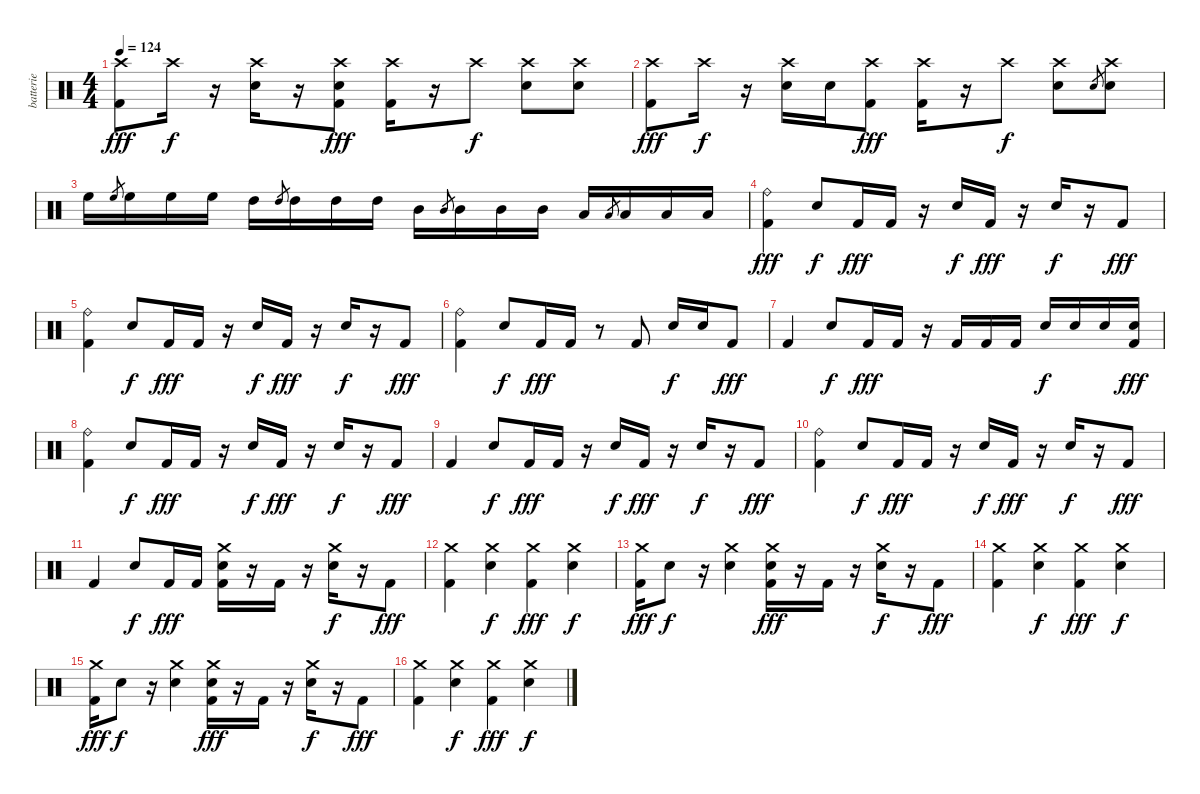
\track ("batterie" "batterie") {instrument percussion}
\staff {score}
\articulation defaults
\ts (4 4)
\tempo 124
\clef neutral
\ks c
("Crash high (hit)" "Kick (hit) 2").8{dy fff} "Crash high (hit)".16{dy f} r.16 ("Crash high (hit)" "Electric Snare (hit)").16 r.16 ("Crash high (hit)" "Electric Snare (hit)" "Kick (hit) 2").8{dy fff} ("Crash high (hit)" "Kick (hit) 2").16 r.16 "Crash high (hit)".8{dy f} ("Crash high (hit)" "Electric Snare (hit)").8 ("Crash high (hit)" "Electric Snare (hit)").8 |
("Crash high (hit)" "Kick (hit) 2").8{dy fff} "Crash high (hit)".16{dy f} r.16 ("Crash high (hit)" "Electric Snare (hit)").16 "Electric Snare (hit)".16 ("Crash high (hit)" "Kick (hit) 2").8{dy fff} ("Crash high (hit)" "Kick (hit) 2").16 r.16 "Crash high (hit)".8{dy f} ("Crash high (hit)" "Electric Snare (hit)").8 "Electric Snare (hit)".8{gr} ("Crash high (hit)" "Electric Snare (hit)").8 |
"High Floor Tom (hit)".16 "High Floor Tom (hit)".8{gr} "High Floor Tom (hit)".16 "High Floor Tom (hit)".16 "High Floor Tom (hit)".16 "High Tom (hit)".16 "High Tom (hit)".8{gr} "High Tom (hit)".16 "High Tom (hit)".16 "High Tom (hit)".16 "Mid Tom (hit)".16 "Mid Tom (hit)".8{gr} "Mid Tom (hit)".16 "Mid Tom (hit)".16 "Mid Tom (hit)".16 "Low Tom (hit)".16 "Low Tom (hit)".8{gr} "Low Tom (hit)".16 "Low Tom (hit)".16 "Low Tom (hit)".16 |
("Ride (bell)" "Kick (hit) 2").4{dy fff} "Electric Snare (hit)".8{dy f} "Kick (hit) 2".16{dy fff} "Kick (hit) 2".16 r.16 "Electric Snare (hit)".16{dy f} "Kick (hit) 2".16{dy fff} r.16 "Electric Snare (hit)".16{dy f} r.16 "Kick (hit) 2".8{dy fff} |
("Ride (bell)" "Kick (hit) 2").4 "Electric Snare (hit)".8{dy f} "Kick (hit) 2".16{dy fff} "Kick (hit) 2".16 r.16 "Electric Snare (hit)".16{dy f} "Kick (hit) 2".16{dy fff} r.16 "Electric Snare (hit)".16{dy f} r.16 "Kick (hit) 2".8{dy fff} |
("Ride (bell)" "Kick (hit) 2").4 "Electric Snare (hit)".8{dy f} "Kick (hit) 2".16{dy fff} "Kick (hit) 2".16 r.8 "Kick (hit) 2".8 "Electric Snare (hit)".16{dy f} "Electric Snare (hit)".16 "Kick (hit) 2".8{dy fff} |
"Kick (hit) 2".4 "Electric Snare (hit)".8{dy f} "Kick (hit) 2".16{dy fff} "Kick (hit) 2".16 r.16 "Kick (hit) 2".16 "Kick (hit) 2".16 "Kick (hit) 2".16 "Electric Snare (hit)".16{dy f} "Electric Snare (hit)".16 "Electric Snare (hit)".16 ("Electric Snare (hit)" "Kick (hit) 2").16{dy fff} |
("Ride (bell)" "Kick (hit) 2").4 "Electric Snare (hit)".8{dy f} "Kick (hit) 2".16{dy fff} "Kick (hit) 2".16 r.16 "Electric Snare (hit)".16{dy f} "Kick (hit) 2".16{dy fff} r.16 "Electric Snare (hit)".16{dy f} r.16 "Kick (hit) 2".8{dy fff} |
"Kick (hit) 2".4 "Electric Snare (hit)".8{dy f} "Kick (hit) 2".16{dy fff} "Kick (hit) 2".16 r.16 "Electric Snare (hit)".16{dy f} "Kick (hit) 2".16{dy fff} r.16 "Electric Snare (hit)".16{dy f} r.16 "Kick (hit) 2".8{dy fff} |
("Ride (bell)" "Kick (hit) 2").4 "Electric Snare (hit)".8{dy f} "Kick (hit) 2".16{dy fff} "Kick (hit) 2".16 r.16 "Electric Snare (hit)".16{dy f} "Kick (hit) 2".16{dy fff} r.16 "Electric Snare (hit)".16{dy f} r.16 "Kick (hit) 2".8{dy fff} |
"Kick (hit) 2".4 "Electric Snare (hit)".8{dy f} "Kick (hit) 2".16{dy fff} "Kick (hit) 2".16 ("Crash medium (hit)" "Electric Snare (hit)" "Kick (hit) 2").16 r.16 "Kick (hit) 2".16 r.16 ("Crash medium (hit)" "Electric Snare (hit)").16{dy f} r.16 "Kick (hit) 2".8{dy fff} |
("Crash medium (hit)" "Kick (hit) 2").4 ("Crash medium (hit)" "Electric Snare (hit)").4{dy f} ("Crash medium (hit)" "Kick (hit) 2").4{dy fff} ("Crash medium (hit)" "Electric Snare (hit)").4{dy f} |
("Crash medium (hit)" "Kick (hit) 2").16{dy fff} "Electric Snare (hit)".8{dy f} r.16 ("Crash medium (hit)" "Electric Snare (hit)").4 ("Crash medium (hit)" "Electric Snare (hit)" "Kick (hit) 2").16{dy fff} r.16 "Kick (hit) 2".16 r.16 ("Crash medium (hit)" "Electric Snare (hit)").16{dy f} r.16 "Kick (hit) 2".8{dy fff} |
("Crash medium (hit)" "Kick (hit) 2").4 ("Crash medium (hit)" "Electric Snare (hit)").4{dy f} ("Crash medium (hit)" "Kick (hit) 2").4{dy fff} ("Crash medium (hit)" "Electric Snare (hit)").4{dy f} |
("Crash medium (hit)" "Kick (hit) 2").16{dy fff} "Electric Snare (hit)".8{dy f} r.16 ("Crash medium (hit)" "Electric Snare (hit)").4 ("Crash medium (hit)" "Electric Snare (hit)" "Kick (hit) 2").16{dy fff} r.16 "Kick (hit) 2".16 r.16 ("Crash medium (hit)" "Electric Snare (hit)").16{dy f} r.16 "Kick (hit) 2".8{dy fff} |
("Crash medium (hit)" "Kick (hit) 2").4 ("Crash medium (hit)" "Electric Snare (hit)").4{dy f} ("Crash medium (hit)" "Kick (hit) 2").4{dy fff} ("Crash medium (hit)" "Electric Snare (hit)").4{dy f}
